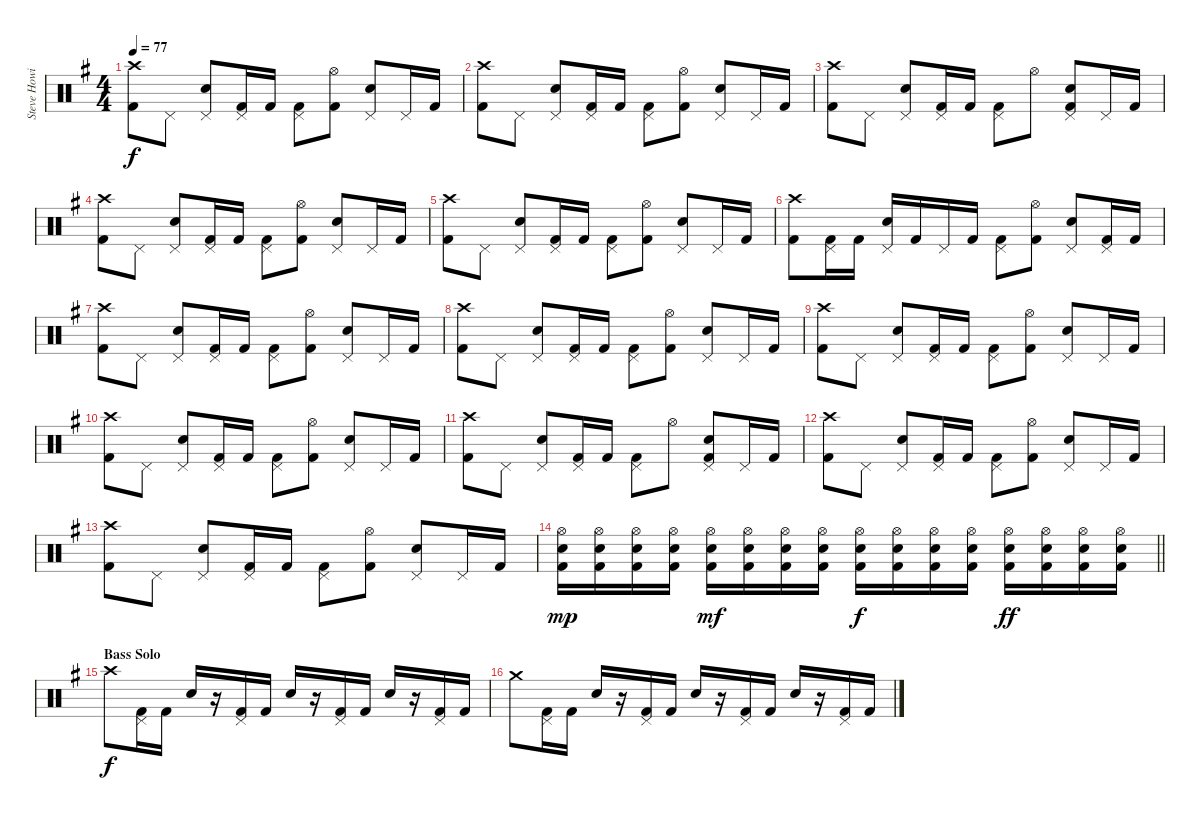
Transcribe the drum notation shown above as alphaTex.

\track ("Steve Howie" "Steve Howi") {instrument percussion}
\staff {score}
\articulation defaults
\ts (4 4)
\tempo 77
\clef neutral
\ks g
("Crash high (hit)" "Kick (hit) 2").8{dy f} "Pedal Hi-Hat (hit)".8 ("Pedal Hi-Hat (hit)" "Electric Snare (hit)").8 ("Pedal Hi-Hat (hit)" "Kick (hit) 2").16 "Kick (hit) 2".16 ("Pedal Hi-Hat (hit)" "Kick (hit) 2").8 ("Hi-Hat (open)" "Kick (hit) 2").8 ("Pedal Hi-Hat (hit)" "Electric Snare (hit)").8 "Pedal Hi-Hat (hit)".16 "Kick (hit) 2".16 |
("Crash high (hit)" "Kick (hit) 2").8 "Pedal Hi-Hat (hit)".8 ("Pedal Hi-Hat (hit)" "Electric Snare (hit)").8 ("Pedal Hi-Hat (hit)" "Kick (hit) 2").16 "Kick (hit) 2".16 ("Pedal Hi-Hat (hit)" "Kick (hit) 2").8 ("Hi-Hat (open)" "Kick (hit) 2").8 ("Pedal Hi-Hat (hit)" "Electric Snare (hit)").8 "Pedal Hi-Hat (hit)".16 "Kick (hit) 2".16 |
("Crash high (hit)" "Kick (hit) 2").8 "Pedal Hi-Hat (hit)".8 ("Pedal Hi-Hat (hit)" "Electric Snare (hit)").8 ("Pedal Hi-Hat (hit)" "Kick (hit) 2").16 "Kick (hit) 2".16 ("Pedal Hi-Hat (hit)" "Kick (hit) 2").8 "Hi-Hat (open)".8 ("Pedal Hi-Hat (hit)" "Electric Snare (hit)" "Kick (hit) 2").8 "Pedal Hi-Hat (hit)".16 "Kick (hit) 2".16 |
("Crash high (hit)" "Kick (hit) 2").8 "Pedal Hi-Hat (hit)".8 ("Pedal Hi-Hat (hit)" "Electric Snare (hit)").8 ("Pedal Hi-Hat (hit)" "Kick (hit) 2").16 "Kick (hit) 2".16 ("Pedal Hi-Hat (hit)" "Kick (hit) 2").8 ("Hi-Hat (open)" "Kick (hit) 2").8 ("Pedal Hi-Hat (hit)" "Electric Snare (hit)").8 "Pedal Hi-Hat (hit)".16 "Kick (hit) 2".16 |
("Crash high (hit)" "Kick (hit) 2").8 "Pedal Hi-Hat (hit)".8 ("Pedal Hi-Hat (hit)" "Electric Snare (hit)").8 ("Pedal Hi-Hat (hit)" "Kick (hit) 2").16 "Kick (hit) 2".16 ("Pedal Hi-Hat (hit)" "Kick (hit) 2").8 ("Hi-Hat (open)" "Kick (hit) 2").8 ("Pedal Hi-Hat (hit)" "Electric Snare (hit)").8 "Pedal Hi-Hat (hit)".16 "Kick (hit) 2".16 |
("Crash high (hit)" "Kick (hit) 2").8 ("Pedal Hi-Hat (hit)" "Kick (hit) 2").16 "Kick (hit) 2".16 ("Pedal Hi-Hat (hit)" "Electric Snare (hit)").16 "Kick (hit) 2".16 "Pedal Hi-Hat (hit)".16 "Kick (hit) 2".16 ("Pedal Hi-Hat (hit)" "Kick (hit) 2").8 ("Hi-Hat (open)" "Kick (hit) 2").8 ("Pedal Hi-Hat (hit)" "Electric Snare (hit)").8 ("Pedal Hi-Hat (hit)" "Kick (hit) 2").16 "Kick (hit) 2".16 |
("Crash high (hit)" "Kick (hit) 2").8 "Pedal Hi-Hat (hit)".8 ("Pedal Hi-Hat (hit)" "Electric Snare (hit)").8 ("Pedal Hi-Hat (hit)" "Kick (hit) 2").16 "Kick (hit) 2".16 ("Pedal Hi-Hat (hit)" "Kick (hit) 2").8 ("Hi-Hat (open)" "Kick (hit) 2").8 ("Pedal Hi-Hat (hit)" "Electric Snare (hit)").8 "Pedal Hi-Hat (hit)".16 "Kick (hit) 2".16 |
("Crash high (hit)" "Kick (hit) 2").8 "Pedal Hi-Hat (hit)".8 ("Pedal Hi-Hat (hit)" "Electric Snare (hit)").8 ("Pedal Hi-Hat (hit)" "Kick (hit) 2").16 "Kick (hit) 2".16 ("Pedal Hi-Hat (hit)" "Kick (hit) 2").8 ("Hi-Hat (open)" "Kick (hit) 2").8 ("Pedal Hi-Hat (hit)" "Electric Snare (hit)").8 "Pedal Hi-Hat (hit)".16 "Kick (hit) 2".16 |
("Crash high (hit)" "Kick (hit) 2").8 "Pedal Hi-Hat (hit)".8 ("Pedal Hi-Hat (hit)" "Electric Snare (hit)").8 ("Pedal Hi-Hat (hit)" "Kick (hit) 2").16 "Kick (hit) 2".16 ("Pedal Hi-Hat (hit)" "Kick (hit) 2").8 ("Hi-Hat (open)" "Kick (hit) 2").8 ("Pedal Hi-Hat (hit)" "Electric Snare (hit)").8 "Pedal Hi-Hat (hit)".16 "Kick (hit) 2".16 |
("Crash high (hit)" "Kick (hit) 2").8 "Pedal Hi-Hat (hit)".8 ("Pedal Hi-Hat (hit)" "Electric Snare (hit)").8 ("Pedal Hi-Hat (hit)" "Kick (hit) 2").16 "Kick (hit) 2".16 ("Pedal Hi-Hat (hit)" "Kick (hit) 2").8 ("Hi-Hat (open)" "Kick (hit) 2").8 ("Pedal Hi-Hat (hit)" "Electric Snare (hit)").8 "Pedal Hi-Hat (hit)".16 "Kick (hit) 2".16 |
("Crash high (hit)" "Kick (hit) 2").8 "Pedal Hi-Hat (hit)".8 ("Pedal Hi-Hat (hit)" "Electric Snare (hit)").8 ("Pedal Hi-Hat (hit)" "Kick (hit) 2").16 "Kick (hit) 2".16 ("Pedal Hi-Hat (hit)" "Kick (hit) 2").8 "Hi-Hat (open)".8 ("Pedal Hi-Hat (hit)" "Electric Snare (hit)" "Kick (hit) 2").8 "Pedal Hi-Hat (hit)".16 "Kick (hit) 2".16 |
("Crash high (hit)" "Kick (hit) 2").8 "Pedal Hi-Hat (hit)".8 ("Pedal Hi-Hat (hit)" "Electric Snare (hit)").8 ("Pedal Hi-Hat (hit)" "Kick (hit) 2").16 "Kick (hit) 2".16 ("Pedal Hi-Hat (hit)" "Kick (hit) 2").8 ("Hi-Hat (open)" "Kick (hit) 2").8 ("Pedal Hi-Hat (hit)" "Electric Snare (hit)").8 "Pedal Hi-Hat (hit)".16 "Kick (hit) 2".16 |
("Crash high (hit)" "Kick (hit) 2").8 "Pedal Hi-Hat (hit)".8 ("Pedal Hi-Hat (hit)" "Electric Snare (hit)").8 ("Pedal Hi-Hat (hit)" "Kick (hit) 2").16 "Kick (hit) 2".16 ("Pedal Hi-Hat (hit)" "Kick (hit) 2").8 ("Hi-Hat (open)" "Kick (hit) 2").8 ("Pedal Hi-Hat (hit)" "Electric Snare (hit)").8 "Pedal Hi-Hat (hit)".16 "Kick (hit) 2".16 |
\barLineRight lightlight
("Hi-Hat (open)" "Electric Snare (hit)" "Kick (hit) 2").16{dy mp} ("Hi-Hat (open)" "Electric Snare (hit)" "Kick (hit) 2").16 ("Hi-Hat (open)" "Electric Snare (hit)" "Kick (hit) 2").16 ("Hi-Hat (open)" "Electric Snare (hit)" "Kick (hit) 2").16 ("Hi-Hat (open)" "Electric Snare (hit)" "Kick (hit) 2").16{dy mf} ("Hi-Hat (open)" "Electric Snare (hit)" "Kick (hit) 2").16 ("Hi-Hat (open)" "Electric Snare (hit)" "Kick (hit) 2").16 ("Hi-Hat (open)" "Electric Snare (hit)" "Kick (hit) 2").16 ("Hi-Hat (open)" "Electric Snare (hit)" "Kick (hit) 2").16{dy f} ("Hi-Hat (open)" "Electric Snare (hit)" "Kick (hit) 2").16 ("Hi-Hat (open)" "Electric Snare (hit)" "Kick (hit) 2").16 ("Hi-Hat (open)" "Electric Snare (hit)" "Kick (hit) 2").16 ("Hi-Hat (open)" "Electric Snare (hit)" "Kick (hit) 2").16{dy ff} ("Hi-Hat (open)" "Electric Snare (hit)" "Kick (hit) 2").16 ("Hi-Hat (open)" "Electric Snare (hit)" "Kick (hit) 2").16 ("Hi-Hat (open)" "Electric Snare (hit)" "Kick (hit) 2").16 |
\section ("" "Bass Solo")
"Crash high (hit)".8{dy f} ("Pedal Hi-Hat (hit)" "Kick (hit) 2").16 "Kick (hit) 2".16 "Electric Snare (hit)".16 r.16 ("Pedal Hi-Hat (hit)" "Kick (hit) 2").16 "Kick (hit) 2".16 "Electric Snare (hit)".16 r.16 ("Pedal Hi-Hat (hit)" "Kick (hit) 2").16 "Kick (hit) 2".16 "Electric Snare (hit)".16 r.16 ("Pedal Hi-Hat (hit)" "Kick (hit) 2").16 "Kick (hit) 2".16 |
"Crash medium (hit)".8 ("Pedal Hi-Hat (hit)" "Kick (hit) 2").16 "Kick (hit) 2".16 "Electric Snare (hit)".16 r.16 ("Pedal Hi-Hat (hit)" "Kick (hit) 2").16 "Kick (hit) 2".16 "Electric Snare (hit)".16 r.16 ("Pedal Hi-Hat (hit)" "Kick (hit) 2").16 "Kick (hit) 2".16 "Electric Snare (hit)".16 r.16 ("Pedal Hi-Hat (hit)" "Kick (hit) 2").16 "Kick (hit) 2".16
